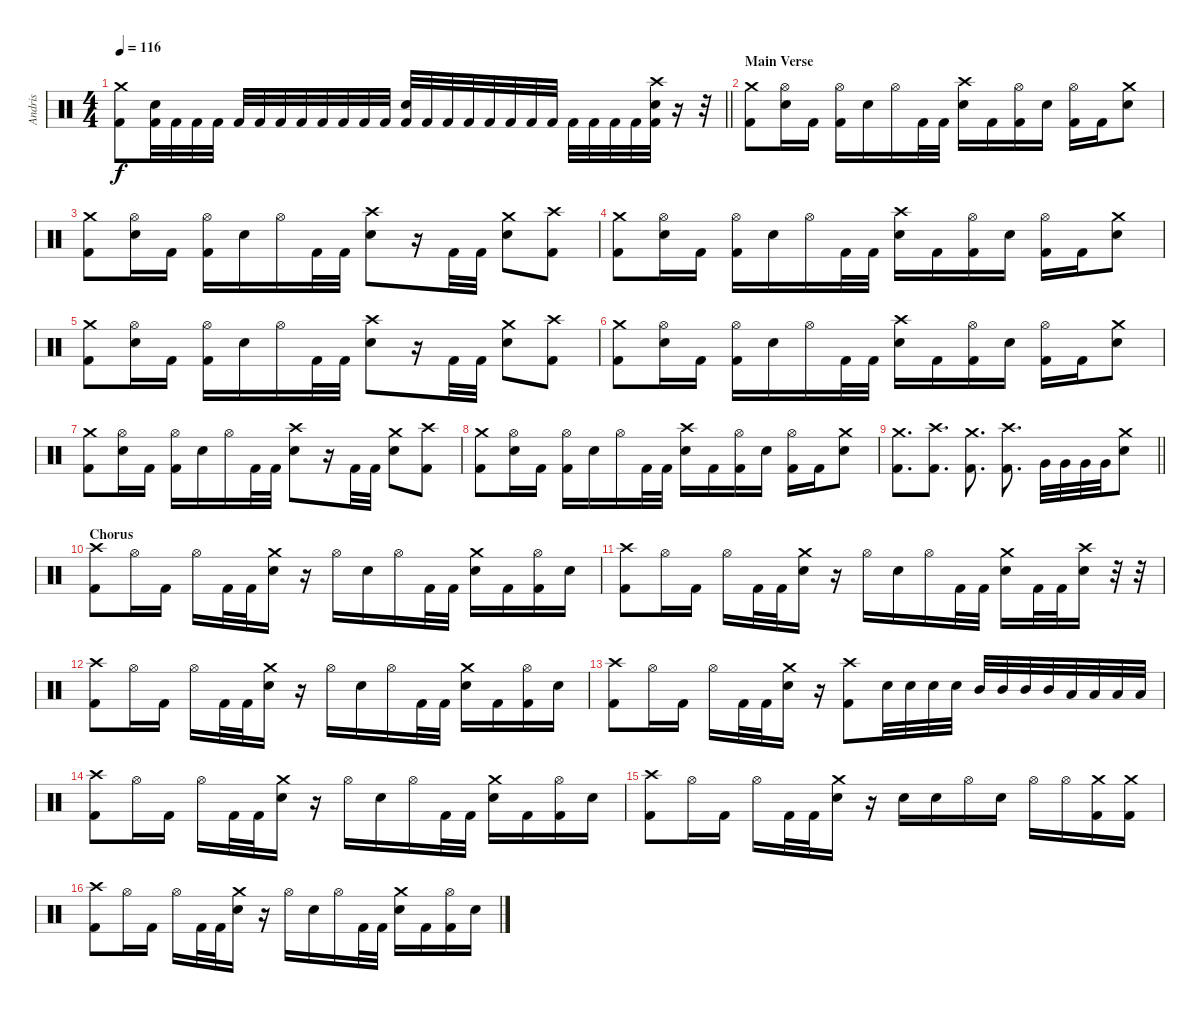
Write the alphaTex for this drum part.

\track ("Andris" "Andris") {instrument percussion}
\staff {score}
\articulation defaults
\ts (4 4)
\tempo 116
\clef neutral
\barLineRight lightlight
\ks c
("Crash medium (hit)" "Kick (hit) 2").8{dy f} ("Electric Snare (hit)" "Kick (hit) 2").32 "Kick (hit) 2".32 "Kick (hit) 2".32 "Kick (hit) 2".32 "Kick (hit) 2".32 "Kick (hit) 2".32 "Kick (hit) 2".32 "Kick (hit) 2".32 "Kick (hit) 2".32 "Kick (hit) 2".32 "Kick (hit) 2".32 "Kick (hit) 2".32 ("Electric Snare (hit)" "Kick (hit) 2").32 "Kick (hit) 2".32 "Kick (hit) 2".32 "Kick (hit) 2".32 "Kick (hit) 2".32 "Kick (hit) 2".32 "Kick (hit) 2".32 "Kick (hit) 2".32 "Kick (hit) 2".32 "Kick (hit) 2".32 "Kick (hit) 2".32 "Kick (hit) 2".32 ("Crash high (hit)" "Electric Snare (hit)" "Kick (hit) 2").32 r.16 r.32 |
\section ("" "Main Verse")
("Crash medium (hit)" "Kick (hit) 2").8 ("Hi-Hat (open)" "Electric Snare (hit)").16 "Kick (hit) 2".16 ("Hi-Hat (open)" "Kick (hit) 2").16 "Electric Snare (hit)".16 "Hi-Hat (open)".16 "Kick (hit) 2".32 "Kick (hit) 2".32 ("Crash high (hit)" "Electric Snare (hit)").16 "Kick (hit) 2".16 ("Hi-Hat (open)" "Kick (hit) 2").16 "Electric Snare (hit)".16 ("Hi-Hat (open)" "Kick (hit) 2").16 "Kick (hit) 2".16 ("Crash medium (hit)" "Electric Snare (hit)").8 |
("Crash medium (hit)" "Kick (hit) 2").8 ("Hi-Hat (open)" "Electric Snare (hit)").16 "Kick (hit) 2".16 ("Hi-Hat (open)" "Kick (hit) 2").16 "Electric Snare (hit)".16 "Hi-Hat (open)".16 "Kick (hit) 2".32 "Kick (hit) 2".32 ("Crash high (hit)" "Electric Snare (hit)").8 r.16 "Kick (hit) 2".32 "Kick (hit) 2".32 ("Crash medium (hit)" "Electric Snare (hit)").8 ("Crash high (hit)" "Kick (hit) 2").8 |
("Crash medium (hit)" "Kick (hit) 2").8 ("Hi-Hat (open)" "Electric Snare (hit)").16 "Kick (hit) 2".16 ("Hi-Hat (open)" "Kick (hit) 2").16 "Electric Snare (hit)".16 "Hi-Hat (open)".16 "Kick (hit) 2".32 "Kick (hit) 2".32 ("Crash high (hit)" "Electric Snare (hit)").16 "Kick (hit) 2".16 ("Hi-Hat (open)" "Kick (hit) 2").16 "Electric Snare (hit)".16 ("Hi-Hat (open)" "Kick (hit) 2").16 "Kick (hit) 2".16 ("Crash medium (hit)" "Electric Snare (hit)").8 |
("Crash medium (hit)" "Kick (hit) 2").8 ("Hi-Hat (open)" "Electric Snare (hit)").16 "Kick (hit) 2".16 ("Hi-Hat (open)" "Kick (hit) 2").16 "Electric Snare (hit)".16 "Hi-Hat (open)".16 "Kick (hit) 2".32 "Kick (hit) 2".32 ("Crash high (hit)" "Electric Snare (hit)").8 r.16 "Kick (hit) 2".32 "Kick (hit) 2".32 ("Crash medium (hit)" "Electric Snare (hit)").8 ("Crash high (hit)" "Kick (hit) 2").8 |
("Crash medium (hit)" "Kick (hit) 2").8 ("Hi-Hat (open)" "Electric Snare (hit)").16 "Kick (hit) 2".16 ("Hi-Hat (open)" "Kick (hit) 2").16 "Electric Snare (hit)".16 "Hi-Hat (open)".16 "Kick (hit) 2".32 "Kick (hit) 2".32 ("Crash high (hit)" "Electric Snare (hit)").16 "Kick (hit) 2".16 ("Hi-Hat (open)" "Kick (hit) 2").16 "Electric Snare (hit)".16 ("Hi-Hat (open)" "Kick (hit) 2").16 "Kick (hit) 2".16 ("Crash medium (hit)" "Electric Snare (hit)").8 |
("Crash medium (hit)" "Kick (hit) 2").8 ("Hi-Hat (open)" "Electric Snare (hit)").16 "Kick (hit) 2".16 ("Hi-Hat (open)" "Kick (hit) 2").16 "Electric Snare (hit)".16 "Hi-Hat (open)".16 "Kick (hit) 2".32 "Kick (hit) 2".32 ("Crash high (hit)" "Electric Snare (hit)").8 r.16 "Kick (hit) 2".32 "Kick (hit) 2".32 ("Crash medium (hit)" "Electric Snare (hit)").8 ("Crash high (hit)" "Kick (hit) 2").8 |
("Crash medium (hit)" "Kick (hit) 2").8 ("Hi-Hat (open)" "Electric Snare (hit)").16 "Kick (hit) 2".16 ("Hi-Hat (open)" "Kick (hit) 2").16 "Electric Snare (hit)".16 "Hi-Hat (open)".16 "Kick (hit) 2".32 "Kick (hit) 2".32 ("Crash high (hit)" "Electric Snare (hit)").16 "Kick (hit) 2".16 ("Hi-Hat (open)" "Kick (hit) 2").16 "Electric Snare (hit)".16 ("Hi-Hat (open)" "Kick (hit) 2").16 "Kick (hit) 2".16 ("Crash medium (hit)" "Electric Snare (hit)").8 |
\barLineRight lightlight
("Crash medium (hit)" "Kick (hit) 2").8{d} ("Crash high (hit)" "Kick (hit) 2").8{d} ("Crash medium (hit)" "Kick (hit) 2").8{d} ("Crash high (hit)" "Kick (hit) 2").8{d} "Very Low Tom (hit)".32 "Very Low Tom (hit)".32 "Very Low Tom (hit)".32 "Very Low Tom (hit)".32 ("Crash medium (hit)" "Electric Snare (hit)").8 |
\section ("" "Chorus")
("Crash high (hit)" "Kick (hit) 2").8 "Hi-Hat (open)".16 "Kick (hit) 2".16 "Hi-Hat (open)".16 "Kick (hit) 2".32 "Kick (hit) 2".32 ("Crash medium (hit)" "Electric Snare (hit)").16 r.16 "Hi-Hat (open)".16 "Electric Snare (hit)".16 "Hi-Hat (open)".16 "Kick (hit) 2".32 "Kick (hit) 2".32 ("Crash medium (hit)" "Electric Snare (hit)").16 "Kick (hit) 2".16 ("Hi-Hat (open)" "Kick (hit) 2").16 "Electric Snare (hit)".16 |
("Crash high (hit)" "Kick (hit) 2").8 "Hi-Hat (open)".16 "Kick (hit) 2".16 "Hi-Hat (open)".16 "Kick (hit) 2".32 "Kick (hit) 2".32 ("Crash medium (hit)" "Electric Snare (hit)").16 r.16 "Hi-Hat (open)".16 "Electric Snare (hit)".16 "Hi-Hat (open)".16 "Kick (hit) 2".32 "Kick (hit) 2".32 ("Crash medium (hit)" "Electric Snare (hit)").16 "Kick (hit) 2".32 "Kick (hit) 2".32 ("Crash high (hit)" "Electric Snare (hit)").16 r.32 r.32 |
("Crash high (hit)" "Kick (hit) 2").8 "Hi-Hat (open)".16 "Kick (hit) 2".16 "Hi-Hat (open)".16 "Kick (hit) 2".32 "Kick (hit) 2".32 ("Crash medium (hit)" "Electric Snare (hit)").16 r.16 "Hi-Hat (open)".16 "Electric Snare (hit)".16 "Hi-Hat (open)".16 "Kick (hit) 2".32 "Kick (hit) 2".32 ("Crash medium (hit)" "Electric Snare (hit)").16 "Kick (hit) 2".16 ("Hi-Hat (open)" "Kick (hit) 2").16 "Electric Snare (hit)".16 |
("Crash high (hit)" "Kick (hit) 2").8 "Hi-Hat (open)".16 "Kick (hit) 2".16 "Hi-Hat (open)".16 "Kick (hit) 2".32 "Kick (hit) 2".32 ("Crash medium (hit)" "Electric Snare (hit)").16 r.16 ("Crash high (hit)" "Kick (hit) 2").8 "Electric Snare (hit)".32 "Electric Snare (hit)".32 "Electric Snare (hit)".32 "Electric Snare (hit)".32 "Mid Tom (hit)".32 "Mid Tom (hit)".32 "Mid Tom (hit)".32 "Mid Tom (hit)".32 "Low Tom (hit)".32 "Low Tom (hit)".32 "Low Tom (hit)".32 "Low Tom (hit)".32 |
("Crash high (hit)" "Kick (hit) 2").8 "Hi-Hat (open)".16 "Kick (hit) 2".16 "Hi-Hat (open)".16 "Kick (hit) 2".32 "Kick (hit) 2".32 ("Crash medium (hit)" "Electric Snare (hit)").16 r.16 "Hi-Hat (open)".16 "Electric Snare (hit)".16 "Hi-Hat (open)".16 "Kick (hit) 2".32 "Kick (hit) 2".32 ("Crash medium (hit)" "Electric Snare (hit)").16 "Kick (hit) 2".16 ("Hi-Hat (open)" "Kick (hit) 2").16 "Electric Snare (hit)".16 |
("Crash high (hit)" "Kick (hit) 2").8 "Hi-Hat (open)".16 "Kick (hit) 2".16 "Hi-Hat (open)".16 "Kick (hit) 2".32 "Kick (hit) 2".32 ("Crash medium (hit)" "Electric Snare (hit)").16 r.16 "Electric Snare (hit)".16 "Electric Snare (hit)".16 "Hi-Hat (open)".16 "Electric Snare (hit)".16 "Hi-Hat (open)".16 "Hi-Hat (open)".16 ("Crash medium (hit)" "Kick (hit) 2").16 ("Crash medium (hit)" "Kick (hit) 2").16 |
("Crash high (hit)" "Kick (hit) 2").8 "Hi-Hat (open)".16 "Kick (hit) 2".16 "Hi-Hat (open)".16 "Kick (hit) 2".32 "Kick (hit) 2".32 ("Crash medium (hit)" "Electric Snare (hit)").16 r.16 "Hi-Hat (open)".16 "Electric Snare (hit)".16 "Hi-Hat (open)".16 "Kick (hit) 2".32 "Kick (hit) 2".32 ("Crash medium (hit)" "Electric Snare (hit)").16 "Kick (hit) 2".16 ("Hi-Hat (open)" "Kick (hit) 2").16 "Electric Snare (hit)".16
